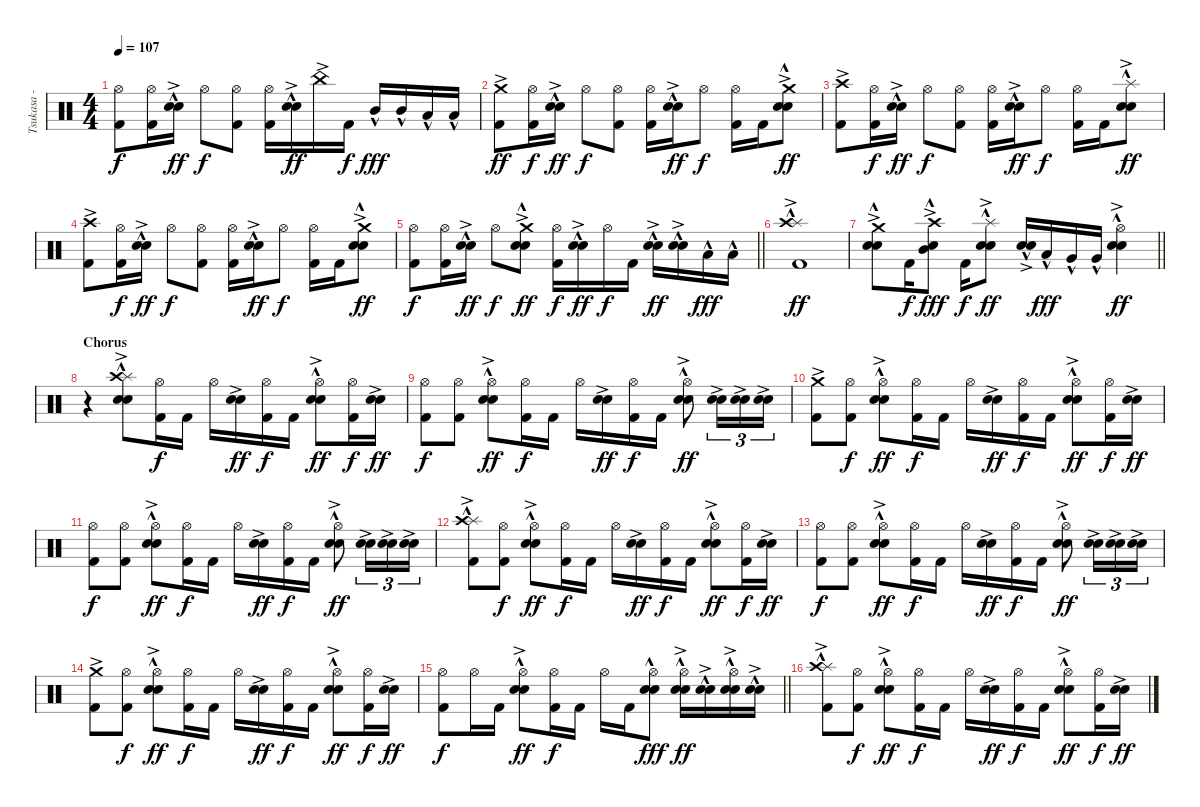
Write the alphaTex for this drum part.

\track ("Tsukasa - Drums" "Tsukasa - ") {instrument percussion}
\staff {score}
\articulation defaults
\ts (4 4)
\tempo 107
\clef neutral
\ks c
("Hi-Hat (open)" "Kick (hit) 2").8{dy f} ("Hi-Hat (open)" "Kick (hit) 2").16 ("Electric Snare (hit)"{hac} "Snare (hit) 2"{ac}).16{dy ff} "Hi-Hat (open)".8{dy f} ("Hi-Hat (open)" "Kick (hit) 2").8 ("Hi-Hat (open)" "Kick (hit) 2").16 ("Electric Snare (hit)"{hac} "Snare (hit) 2"{ac}).16{dy ff} "China (hit)"{ac}.16 "Kick (hit) 2".16{dy f} "Mid Tom (hit)"{hac}.16{dy fff} "Mid Tom (hit)"{hac}.16 "Low Tom (hit)"{hac}.16 "Low Tom (hit)"{hac}.16 |
("Crash medium (hit)"{ac} "Kick (hit) 2").8{dy ff} ("Hi-Hat (open)" "Kick (hit) 2").16{dy f} ("Electric Snare (hit)"{hac} "Snare (hit) 2"{ac}).16{dy ff} "Hi-Hat (open)".8{dy f} ("Hi-Hat (open)" "Kick (hit) 2").8 ("Hi-Hat (open)" "Kick (hit) 2").16 ("Electric Snare (hit)"{hac} "Snare (hit) 2"{ac}).16{dy ff} "Hi-Hat (open)".8{dy f} ("Hi-Hat (open)" "Kick (hit) 2").16 "Kick (hit) 2".16 ("Crash medium (hit)"{ac} "Electric Snare (hit)"{hac} "Snare (hit) 2"{ac}).8{dy ff} |
("Crash high (hit)"{ac} "Kick (hit) 2").8 ("Hi-Hat (open)" "Kick (hit) 2").16{dy f} ("Electric Snare (hit)"{hac} "Snare (hit) 2"{ac}).16{dy ff} "Hi-Hat (open)".8{dy f} ("Hi-Hat (open)" "Kick (hit) 2").8 ("Hi-Hat (open)" "Kick (hit) 2").16 ("Electric Snare (hit)"{hac} "Snare (hit) 2"{ac}).16{dy ff} "Hi-Hat (open)".8{dy f} ("Hi-Hat (open)" "Kick (hit) 2").16 "Kick (hit) 2".16 ("Splash (hit)"{hac} "Electric Snare (hit)"{hac} "Snare (hit) 2"{ac}).8{dy ff} |
("Crash high (hit)"{ac} "Kick (hit) 2").8 ("Hi-Hat (open)" "Kick (hit) 2").16{dy f} ("Electric Snare (hit)"{hac} "Snare (hit) 2"{ac}).16{dy ff} "Hi-Hat (open)".8{dy f} ("Hi-Hat (open)" "Kick (hit) 2").8 ("Hi-Hat (open)" "Kick (hit) 2").16 ("Electric Snare (hit)"{hac} "Snare (hit) 2"{ac}).16{dy ff} "Hi-Hat (open)".8{dy f} ("Hi-Hat (open)" "Kick (hit) 2").16 "Kick (hit) 2".16 ("Crash medium (hit)"{ac} "Electric Snare (hit)"{hac} "Snare (hit) 2"{ac}).8{dy ff} |
\barLineRight lightlight
("Hi-Hat (open)" "Kick (hit) 2").8{dy f} ("Hi-Hat (open)" "Kick (hit) 2").16 ("Electric Snare (hit)"{hac} "Snare (hit) 2"{ac}).16{dy ff} "Hi-Hat (open)".8{dy f} ("Crash medium (hit)"{ac} "Electric Snare (hit)"{hac} "Snare (hit) 2"{ac}).8{dy ff} ("Hi-Hat (open)" "Kick (hit) 2").16{dy f} ("Electric Snare (hit)"{hac} "Snare (hit) 2"{ac}).16{dy ff} "Hi-Hat (open)".16{dy f} "Kick (hit) 2".16 ("Electric Snare (hit)"{hac} "Snare (hit) 2"{ac}).16{dy ff} ("Electric Snare (hit)"{hac} "Snare (hit) 2"{ac}).16 "Low Tom (hit)"{hac}.16{dy fff} "Low Tom (hit)"{hac}.16 |
("Splash (hit)"{hac} "Crash high (hit)"{ac} "Kick (hit) 2").1{dy ff} |
\barLineRight lightlight
("Crash medium (hit)"{ac} "Electric Snare (hit)"{hac} "Snare (hit) 2"{ac}).8 "Kick (hit) 2".16{dy f} ("Crash high (hit)"{ac} "Electric Snare (hit)"{hac} "Mid Tom (hit)"{hac}).8{dy fff} "Kick (hit) 2".16{dy f} ("Splash (hit)"{hac} "Electric Snare (hit)"{hac} "Snare (hit) 2"{ac}).8{dy ff} ("Electric Snare (hit)"{hac} "Snare (hit) 2"{ac}).16 "Low Tom (hit)"{hac}.16{dy fff} "Very Low Tom (hit)"{hac}.16 "Very Low Tom (hit)"{hac}.16 ("Hi-Hat (open)" "Electric Snare (hit)"{hac} "Snare (hit) 2"{ac}).4{dy ff} |
\section ("" "Chorus")
r.4 ("Splash (hit)"{hac} "Crash high (hit)"{ac} "Electric Snare (hit)"{hac} "Snare (hit) 2"{ac}).8 ("Hi-Hat (open)" "Kick (hit) 2").16{dy f} "Kick (hit) 2".16 "Hi-Hat (open)".16 ("Electric Snare (hit)"{ac} "Snare (hit) 2").16{dy ff} ("Hi-Hat (open)" "Kick (hit) 2").16{dy f} "Kick (hit) 2".16 ("Hi-Hat (open)" "Electric Snare (hit)"{hac} "Snare (hit) 2"{ac}).8{dy ff} ("Hi-Hat (open)" "Kick (hit) 2").16{dy f} ("Electric Snare (hit)"{ac} "Snare (hit) 2").16{dy ff} |
("Hi-Hat (open)" "Kick (hit) 2").8{dy f} ("Hi-Hat (open)" "Kick (hit) 2").8 ("Hi-Hat (open)" "Electric Snare (hit)"{hac} "Snare (hit) 2"{ac}).8{dy ff} ("Hi-Hat (open)" "Kick (hit) 2").16{dy f} "Kick (hit) 2".16 "Hi-Hat (open)".16 ("Electric Snare (hit)"{ac} "Snare (hit) 2").16{dy ff} ("Hi-Hat (open)" "Kick (hit) 2").16{dy f} "Kick (hit) 2".16 ("Hi-Hat (open)" "Electric Snare (hit)"{hac} "Snare (hit) 2"{ac}).8{dy ff} ("Electric Snare (hit)"{ac} "Snare (hit) 2"{ac}).16{tu (3 2)} ("Electric Snare (hit)"{ac} "Snare (hit) 2"{ac}).16{tu (3 2)} ("Electric Snare (hit)"{ac} "Snare (hit) 2"{ac}).16{tu (3 2)} |
("Crash medium (hit)"{ac} "Kick (hit) 2").8 ("Hi-Hat (open)" "Kick (hit) 2").8{dy f} ("Hi-Hat (open)" "Electric Snare (hit)"{hac} "Snare (hit) 2"{ac}).8{dy ff} ("Hi-Hat (open)" "Kick (hit) 2").16{dy f} "Kick (hit) 2".16 "Hi-Hat (open)".16 ("Electric Snare (hit)"{ac} "Snare (hit) 2").16{dy ff} ("Hi-Hat (open)" "Kick (hit) 2").16{dy f} "Kick (hit) 2".16 ("Hi-Hat (open)" "Electric Snare (hit)"{hac} "Snare (hit) 2"{ac}).8{dy ff} ("Hi-Hat (open)" "Kick (hit) 2").16{dy f} ("Electric Snare (hit)"{ac} "Snare (hit) 2").16{dy ff} |
("Hi-Hat (open)" "Kick (hit) 2").8{dy f} ("Hi-Hat (open)" "Kick (hit) 2").8 ("Hi-Hat (open)" "Electric Snare (hit)"{hac} "Snare (hit) 2"{ac}).8{dy ff} ("Hi-Hat (open)" "Kick (hit) 2").16{dy f} "Kick (hit) 2".16 "Hi-Hat (open)".16 ("Electric Snare (hit)"{ac} "Snare (hit) 2").16{dy ff} ("Hi-Hat (open)" "Kick (hit) 2").16{dy f} "Kick (hit) 2".16 ("Hi-Hat (open)" "Electric Snare (hit)"{hac} "Snare (hit) 2"{ac}).8{dy ff} ("Electric Snare (hit)"{ac} "Snare (hit) 2"{ac}).16{tu (3 2)} ("Electric Snare (hit)"{ac} "Snare (hit) 2"{ac}).16{tu (3 2)} ("Electric Snare (hit)"{ac} "Snare (hit) 2"{ac}).16{tu (3 2)} |
("Splash (hit)"{hac} "Crash high (hit)"{ac} "Kick (hit) 2").8 ("Hi-Hat (open)" "Kick (hit) 2").8{dy f} ("Hi-Hat (open)" "Electric Snare (hit)"{hac} "Snare (hit) 2"{ac}).8{dy ff} ("Hi-Hat (open)" "Kick (hit) 2").16{dy f} "Kick (hit) 2".16 "Hi-Hat (open)".16 ("Electric Snare (hit)"{ac} "Snare (hit) 2").16{dy ff} ("Hi-Hat (open)" "Kick (hit) 2").16{dy f} "Kick (hit) 2".16 ("Hi-Hat (open)" "Electric Snare (hit)"{hac} "Snare (hit) 2"{ac}).8{dy ff} ("Hi-Hat (open)" "Kick (hit) 2").16{dy f} ("Electric Snare (hit)"{ac} "Snare (hit) 2").16{dy ff} |
("Hi-Hat (open)" "Kick (hit) 2").8{dy f} ("Hi-Hat (open)" "Kick (hit) 2").8 ("Hi-Hat (open)" "Electric Snare (hit)"{hac} "Snare (hit) 2"{ac}).8{dy ff} ("Hi-Hat (open)" "Kick (hit) 2").16{dy f} "Kick (hit) 2".16 "Hi-Hat (open)".16 ("Electric Snare (hit)"{ac} "Snare (hit) 2").16{dy ff} ("Hi-Hat (open)" "Kick (hit) 2").16{dy f} "Kick (hit) 2".16 ("Hi-Hat (open)" "Electric Snare (hit)"{hac} "Snare (hit) 2"{ac}).8{dy ff} ("Electric Snare (hit)"{ac} "Snare (hit) 2"{ac}).16{tu (3 2)} ("Electric Snare (hit)"{ac} "Snare (hit) 2"{ac}).16{tu (3 2)} ("Electric Snare (hit)"{ac} "Snare (hit) 2"{ac}).16{tu (3 2)} |
("Crash medium (hit)"{ac} "Kick (hit) 2").8 ("Hi-Hat (open)" "Kick (hit) 2").8{dy f} ("Hi-Hat (open)" "Electric Snare (hit)"{hac} "Snare (hit) 2"{ac}).8{dy ff} ("Hi-Hat (open)" "Kick (hit) 2").16{dy f} "Kick (hit) 2".16 "Hi-Hat (open)".16 ("Electric Snare (hit)"{ac} "Snare (hit) 2").16{dy ff} ("Hi-Hat (open)" "Kick (hit) 2").16{dy f} "Kick (hit) 2".16 ("Hi-Hat (open)" "Electric Snare (hit)"{hac} "Snare (hit) 2"{ac}).8{dy ff} ("Hi-Hat (open)" "Kick (hit) 2").16{dy f} ("Electric Snare (hit)"{ac} "Snare (hit) 2").16{dy ff} |
\barLineRight lightlight
("Hi-Hat (open)" "Kick (hit) 2").8{dy f} "Hi-Hat (open)".16 "Kick (hit) 2".16 ("Hi-Hat (open)" "Electric Snare (hit)"{hac} "Snare (hit) 2"{ac}).8{dy ff} ("Hi-Hat (open)" "Kick (hit) 2").16{dy f} "Kick (hit) 2".16 "Hi-Hat (open)".16 "Kick (hit) 2".16 ("Hi-Hat (open)" "Electric Snare (hit)"{hac} "Snare (hit) 2").8{dy fff} ("Hi-Hat (open)" "Electric Snare (hit)"{hac} "Snare (hit) 2"{ac}).16{dy ff} ("Electric Snare (hit)"{hac} "Snare (hit) 2"{ac}).16 ("Hi-Hat (open)" "Electric Snare (hit)"{hac} "Snare (hit) 2"{ac}).16 ("Electric Snare (hit)"{hac} "Snare (hit) 2"{ac}).16 |
\section ("" "")
("Splash (hit)"{hac} "Crash high (hit)"{ac} "Kick (hit) 2").8 ("Hi-Hat (open)" "Kick (hit) 2").8{dy f} ("Hi-Hat (open)" "Electric Snare (hit)"{hac} "Snare (hit) 2"{ac}).8{dy ff} ("Hi-Hat (open)" "Kick (hit) 2").16{dy f} "Kick (hit) 2".16 "Hi-Hat (open)".16 ("Electric Snare (hit)"{ac} "Snare (hit) 2").16{dy ff} ("Hi-Hat (open)" "Kick (hit) 2").16{dy f} "Kick (hit) 2".16 ("Hi-Hat (open)" "Electric Snare (hit)"{hac} "Snare (hit) 2"{ac}).8{dy ff} ("Hi-Hat (open)" "Kick (hit) 2").16{dy f} ("Electric Snare (hit)"{ac} "Snare (hit) 2").16{dy ff}
